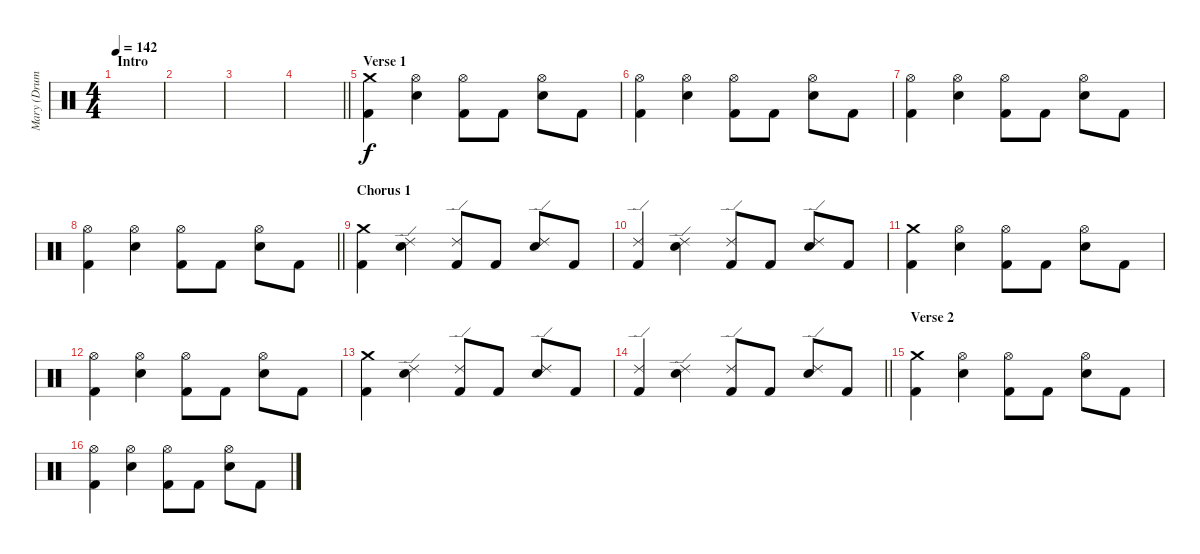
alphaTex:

\track ("Mary (Drums)" "Mary (Drum") {instrument percussion}
\staff {score}
\articulation defaults
\ts (4 4)
\section ("" "Intro")
\tempo 142
\clef neutral
\ks c
|
|
|
\barLineRight lightlight
|
\section ("" "Verse 1")
("Crash medium (hit)" "Kick (hit) 2").4 ("Hi-Hat (open)" "Snare (hit) 2").4 ("Hi-Hat (open)" "Kick (hit) 2").8 "Kick (hit) 2".8 ("Hi-Hat (open)" "Snare (hit) 2").8 "Kick (hit) 2".8 |
("Hi-Hat (open)" "Kick (hit) 2").4 ("Hi-Hat (open)" "Snare (hit) 2").4 ("Hi-Hat (open)" "Kick (hit) 2").8 "Kick (hit) 2".8 ("Hi-Hat (open)" "Snare (hit) 2").8 "Kick (hit) 2".8 |
("Hi-Hat (open)" "Kick (hit) 2").4 ("Hi-Hat (open)" "Snare (hit) 2").4 ("Hi-Hat (open)" "Kick (hit) 2").8 "Kick (hit) 2".8 ("Hi-Hat (open)" "Snare (hit) 2").8 "Kick (hit) 2".8 |
\barLineRight lightlight
("Hi-Hat (open)" "Kick (hit) 2").4 ("Hi-Hat (open)" "Snare (hit) 2").4 ("Hi-Hat (open)" "Kick (hit) 2").8 "Kick (hit) 2".8 ("Hi-Hat (open)" "Snare (hit) 2").8 "Kick (hit) 2".8 |
\section ("" "Chorus 1")
("Crash medium (hit)" "Kick (hit) 2").4 ("Ride (edge) 2" "Snare (hit) 2").4 ("Ride (edge) 2" "Kick (hit) 2").8 "Kick (hit) 2".8 ("Ride (edge) 2" "Snare (hit) 2").8 "Kick (hit) 2".8 |
("Ride (edge) 2" "Kick (hit) 2").4 ("Ride (edge) 2" "Snare (hit) 2").4 ("Ride (edge) 2" "Kick (hit) 2").8 "Kick (hit) 2".8 ("Ride (edge) 2" "Snare (hit) 2").8 "Kick (hit) 2".8 |
("Crash medium (hit)" "Kick (hit) 2").4 ("Hi-Hat (open)" "Snare (hit) 2").4 ("Hi-Hat (open)" "Kick (hit) 2").8 "Kick (hit) 2".8 ("Hi-Hat (open)" "Snare (hit) 2").8 "Kick (hit) 2".8 |
("Hi-Hat (open)" "Kick (hit) 2").4 ("Hi-Hat (open)" "Snare (hit) 2").4 ("Hi-Hat (open)" "Kick (hit) 2").8 "Kick (hit) 2".8 ("Hi-Hat (open)" "Snare (hit) 2").8 "Kick (hit) 2".8 |
("Crash medium (hit)" "Kick (hit) 2").4 ("Ride (edge) 2" "Snare (hit) 2").4 ("Ride (edge) 2" "Kick (hit) 2").8 "Kick (hit) 2".8 ("Ride (edge) 2" "Snare (hit) 2").8 "Kick (hit) 2".8 |
\barLineRight lightlight
("Ride (edge) 2" "Kick (hit) 2").4 ("Ride (edge) 2" "Snare (hit) 2").4 ("Ride (edge) 2" "Kick (hit) 2").8 "Kick (hit) 2".8 ("Ride (edge) 2" "Snare (hit) 2").8 "Kick (hit) 2".8 |
\section ("" "Verse 2")
("Crash medium (hit)" "Kick (hit) 2").4 ("Hi-Hat (open)" "Snare (hit) 2").4 ("Hi-Hat (open)" "Kick (hit) 2").8 "Kick (hit) 2".8 ("Hi-Hat (open)" "Snare (hit) 2").8 "Kick (hit) 2".8 |
("Hi-Hat (open)" "Kick (hit) 2").4 ("Hi-Hat (open)" "Snare (hit) 2").4 ("Hi-Hat (open)" "Kick (hit) 2").8 "Kick (hit) 2".8 ("Hi-Hat (open)" "Snare (hit) 2").8 "Kick (hit) 2".8
